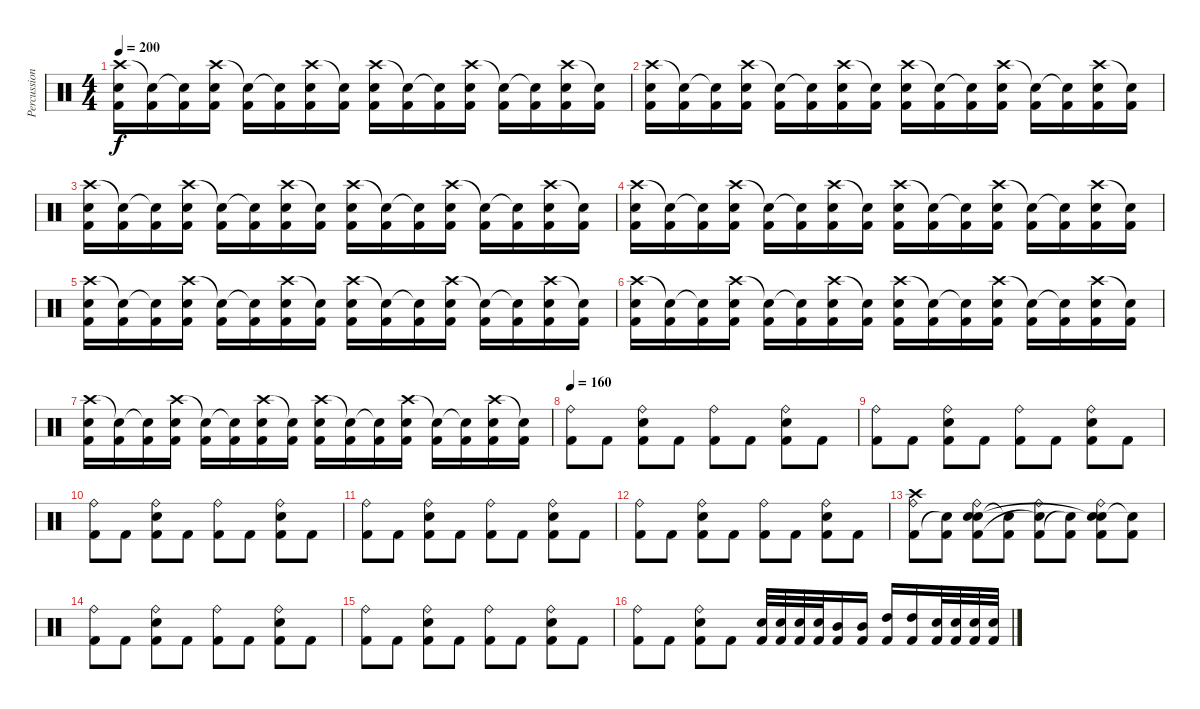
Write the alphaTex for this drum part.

\track ("Percussion" "Percussion") {instrument percussion}
\staff {score}
\articulation defaults
\ts (4 4)
\tempo 200
\clef neutral
\ks c
("Crash high (hit)" "Snare (hit) 2" "Kick (hit) 2").16{dy f} ("Snare (hit)"{t} "Kick (hit) 2").16 ("Snare (hit)"{t} "Kick (hit) 2").16 ("Crash high (hit)" "Snare (hit) 2" "Kick (hit) 2").16 ("Snare (hit)"{t} "Kick (hit) 2").16 ("Snare (hit)"{t} "Kick (hit) 2").16 ("Crash high (hit)" "Snare (hit) 2" "Kick (hit) 2").16 ("Snare (hit)"{t} "Kick (hit) 2").16 ("Crash high (hit)" "Snare (hit) 2" "Kick (hit) 2").16 ("Snare (hit)"{t} "Kick (hit) 2").16 ("Snare (hit)"{t} "Kick (hit) 2").16 ("Crash high (hit)" "Snare (hit) 2" "Kick (hit) 2").16 ("Snare (hit)"{t} "Kick (hit) 2").16 ("Snare (hit)"{t} "Kick (hit) 2").16 ("Crash high (hit)" "Snare (hit) 2" "Kick (hit) 2").16 ("Snare (hit)"{t} "Kick (hit) 2").16 |
("Crash high (hit)" "Snare (hit) 2" "Kick (hit) 2").16 ("Snare (hit)"{t} "Kick (hit) 2").16 ("Snare (hit)"{t} "Kick (hit) 2").16 ("Crash high (hit)" "Snare (hit) 2" "Kick (hit) 2").16 ("Snare (hit)"{t} "Kick (hit) 2").16 ("Snare (hit)"{t} "Kick (hit) 2").16 ("Crash high (hit)" "Snare (hit) 2" "Kick (hit) 2").16 ("Snare (hit)"{t} "Kick (hit) 2").16 ("Crash high (hit)" "Snare (hit) 2" "Kick (hit) 2").16 ("Snare (hit)"{t} "Kick (hit) 2").16 ("Snare (hit)"{t} "Kick (hit) 2").16 ("Crash high (hit)" "Snare (hit) 2" "Kick (hit) 2").16 ("Snare (hit)"{t} "Kick (hit) 2").16 ("Snare (hit)"{t} "Kick (hit) 2").16 ("Crash high (hit)" "Snare (hit) 2" "Kick (hit) 2").16 ("Snare (hit)"{t} "Kick (hit) 2").16 |
("Crash high (hit)" "Snare (hit) 2" "Kick (hit) 2").16 ("Snare (hit)"{t} "Kick (hit) 2").16 ("Snare (hit)"{t} "Kick (hit) 2").16 ("Crash high (hit)" "Snare (hit) 2" "Kick (hit) 2").16 ("Snare (hit)"{t} "Kick (hit) 2").16 ("Snare (hit)"{t} "Kick (hit) 2").16 ("Crash high (hit)" "Snare (hit) 2" "Kick (hit) 2").16 ("Snare (hit)"{t} "Kick (hit) 2").16 ("Crash high (hit)" "Snare (hit) 2" "Kick (hit) 2").16 ("Snare (hit)"{t} "Kick (hit) 2").16 ("Snare (hit)"{t} "Kick (hit) 2").16 ("Crash high (hit)" "Snare (hit) 2" "Kick (hit) 2").16 ("Snare (hit)"{t} "Kick (hit) 2").16 ("Snare (hit)"{t} "Kick (hit) 2").16 ("Crash high (hit)" "Snare (hit) 2" "Kick (hit) 2").16 ("Snare (hit)"{t} "Kick (hit) 2").16 |
("Crash high (hit)" "Snare (hit) 2" "Kick (hit) 2").16 ("Snare (hit)"{t} "Kick (hit) 2").16 ("Snare (hit)"{t} "Kick (hit) 2").16 ("Crash high (hit)" "Snare (hit) 2" "Kick (hit) 2").16 ("Snare (hit)"{t} "Kick (hit) 2").16 ("Snare (hit)"{t} "Kick (hit) 2").16 ("Crash high (hit)" "Snare (hit) 2" "Kick (hit) 2").16 ("Snare (hit)"{t} "Kick (hit) 2").16 ("Crash high (hit)" "Snare (hit) 2" "Kick (hit) 2").16 ("Snare (hit)"{t} "Kick (hit) 2").16 ("Snare (hit)"{t} "Kick (hit) 2").16 ("Crash high (hit)" "Snare (hit) 2" "Kick (hit) 2").16 ("Snare (hit)"{t} "Kick (hit) 2").16 ("Snare (hit)"{t} "Kick (hit) 2").16 ("Crash high (hit)" "Snare (hit) 2" "Kick (hit) 2").16 ("Snare (hit)"{t} "Kick (hit) 2").16 |
("Crash high (hit)" "Snare (hit) 2" "Kick (hit) 2").16 ("Snare (hit)"{t} "Kick (hit) 2").16 ("Snare (hit)"{t} "Kick (hit) 2").16 ("Crash high (hit)" "Snare (hit) 2" "Kick (hit) 2").16 ("Snare (hit)"{t} "Kick (hit) 2").16 ("Snare (hit)"{t} "Kick (hit) 2").16 ("Crash high (hit)" "Snare (hit) 2" "Kick (hit) 2").16 ("Snare (hit)"{t} "Kick (hit) 2").16 ("Crash high (hit)" "Snare (hit) 2" "Kick (hit) 2").16 ("Snare (hit)"{t} "Kick (hit) 2").16 ("Snare (hit)"{t} "Kick (hit) 2").16 ("Crash high (hit)" "Snare (hit) 2" "Kick (hit) 2").16 ("Snare (hit)"{t} "Kick (hit) 2").16 ("Snare (hit)"{t} "Kick (hit) 2").16 ("Crash high (hit)" "Snare (hit) 2" "Kick (hit) 2").16 ("Snare (hit)"{t} "Kick (hit) 2").16 |
("Crash high (hit)" "Snare (hit) 2" "Kick (hit) 2").16 ("Snare (hit)"{t} "Kick (hit) 2").16 ("Snare (hit)"{t} "Kick (hit) 2").16 ("Crash high (hit)" "Snare (hit) 2" "Kick (hit) 2").16 ("Snare (hit)"{t} "Kick (hit) 2").16 ("Snare (hit)"{t} "Kick (hit) 2").16 ("Crash high (hit)" "Snare (hit) 2" "Kick (hit) 2").16 ("Snare (hit)"{t} "Kick (hit) 2").16 ("Crash high (hit)" "Snare (hit) 2" "Kick (hit) 2").16 ("Snare (hit)"{t} "Kick (hit) 2").16 ("Snare (hit)"{t} "Kick (hit) 2").16 ("Crash high (hit)" "Snare (hit) 2" "Kick (hit) 2").16 ("Snare (hit)"{t} "Kick (hit) 2").16 ("Snare (hit)"{t} "Kick (hit) 2").16 ("Crash high (hit)" "Snare (hit) 2" "Kick (hit) 2").16 ("Snare (hit)"{t} "Kick (hit) 2").16 |
("Crash high (hit)" "Snare (hit) 2" "Kick (hit) 2").16 ("Snare (hit)"{t} "Kick (hit) 2").16 ("Snare (hit)"{t} "Kick (hit) 2").16 ("Crash high (hit)" "Snare (hit) 2" "Kick (hit) 2").16 ("Snare (hit)"{t} "Kick (hit) 2").16 ("Snare (hit)"{t} "Kick (hit) 2").16 ("Crash high (hit)" "Snare (hit) 2" "Kick (hit) 2").16 ("Snare (hit)"{t} "Kick (hit) 2").16 ("Crash high (hit)" "Snare (hit) 2" "Kick (hit) 2").16 ("Snare (hit)"{t} "Kick (hit) 2").16 ("Snare (hit)"{t} "Kick (hit) 2").16 ("Crash high (hit)" "Snare (hit) 2" "Kick (hit) 2").16 ("Snare (hit)"{t} "Kick (hit) 2").16 ("Snare (hit)"{t} "Kick (hit) 2").16 ("Crash high (hit)" "Snare (hit) 2" "Kick (hit) 2").16 ("Snare (hit)"{t} "Kick (hit) 2").16 |
\tempo 160
("Ride (bell)" "Kick (hit) 2").8 "Kick (hit) 2".8 ("Ride (bell)" "Snare (hit) 2" "Kick (hit) 2").8 "Kick (hit) 2".8 ("Ride (bell)" "Kick (hit) 2").8 "Kick (hit) 2".8 ("Ride (bell)" "Snare (hit) 2" "Kick (hit) 2").8 "Kick (hit) 2".8 |
("Ride (bell)" "Kick (hit) 2").8 "Kick (hit) 2".8 ("Ride (bell)" "Snare (hit) 2" "Kick (hit) 2").8 "Kick (hit) 2".8 ("Ride (bell)" "Kick (hit) 2").8 "Kick (hit) 2".8 ("Ride (bell)" "Snare (hit) 2" "Kick (hit) 2").8 "Kick (hit) 2".8 |
("Ride (bell)" "Kick (hit) 2").8 "Kick (hit) 2".8 ("Ride (bell)" "Snare (hit) 2" "Kick (hit) 2").8 "Kick (hit) 2".8 ("Ride (bell)" "Kick (hit) 2").8 "Kick (hit) 2".8 ("Ride (bell)" "Snare (hit) 2" "Kick (hit) 2").8 "Kick (hit) 2".8 |
("Ride (bell)" "Kick (hit) 2").8 "Kick (hit) 2".8 ("Ride (bell)" "Snare (hit) 2" "Kick (hit) 2").8 "Kick (hit) 2".8 ("Ride (bell)" "Kick (hit) 2").8 "Kick (hit) 2".8 ("Ride (bell)" "Snare (hit) 2" "Kick (hit) 2").8 "Kick (hit) 2".8 |
("Ride (bell)" "Kick (hit) 2").8 "Kick (hit) 2".8 ("Ride (bell)" "Snare (hit) 2" "Kick (hit) 2").8 "Kick (hit) 2".8 ("Ride (bell)" "Kick (hit) 2").8 "Kick (hit) 2".8 ("Ride (bell)" "Snare (hit) 2" "Kick (hit) 2").8 "Kick (hit) 2".8 |
("Ride (bell)" "Kick (hit) 2" "Crash high (hit)").8 ("Kick (hit) 2" "Snare (hit)"{t}).8 ("Ride (bell)" "Snare (hit) 2" "Kick (hit) 2" "Snare (hit)").8 ("Kick (hit) 2" "Snare (hit)"{t}).8 ("Ride (bell)" "Kick (hit) 2" "Snare (hit)"{t}).8 ("Kick (hit) 2" "Snare (hit)"{t}).8 ("Ride (bell)" "Snare (hit) 2" "Kick (hit) 2" "Snare (hit)"{t}).8 ("Kick (hit) 2" "Snare (hit)"{t}).8 |
("Ride (bell)" "Kick (hit) 2").8 "Kick (hit) 2".8 ("Ride (bell)" "Snare (hit) 2" "Kick (hit) 2").8 "Kick (hit) 2".8 ("Ride (bell)" "Kick (hit) 2").8 "Kick (hit) 2".8 ("Ride (bell)" "Snare (hit) 2" "Kick (hit) 2").8 "Kick (hit) 2".8 |
("Ride (bell)" "Kick (hit) 2").8 "Kick (hit) 2".8 ("Ride (bell)" "Snare (hit) 2" "Kick (hit) 2").8 "Kick (hit) 2".8 ("Ride (bell)" "Kick (hit) 2").8 "Kick (hit) 2".8 ("Ride (bell)" "Snare (hit) 2" "Kick (hit) 2").8 "Kick (hit) 2".8 |
("Ride (bell)" "Kick (hit) 2").8 "Kick (hit) 2".8 ("Ride (bell)" "Snare (hit) 2" "Kick (hit) 2").8 "Kick (hit) 2".8 ("Snare (hit) 2" "Kick (hit) 2").32 ("Snare (hit) 2" "Kick (hit) 2").32 ("Snare (hit) 2" "Kick (hit) 2").32 ("Snare (hit) 2" "Kick (hit) 2").32 ("Mid Tom (hit)" "Kick (hit) 2").16 ("Mid Tom (hit)" "Kick (hit) 2").16 ("High Tom (hit)" "Kick (hit) 2").16 ("High Tom (hit)" "Kick (hit) 2").16 ("Snare (hit) 2" "Kick (hit) 2").32 ("Snare (hit) 2" "Kick (hit) 2").32 ("Snare (hit) 2" "Kick (hit) 2").32 ("Snare (hit) 2" "Kick (hit) 2").32
